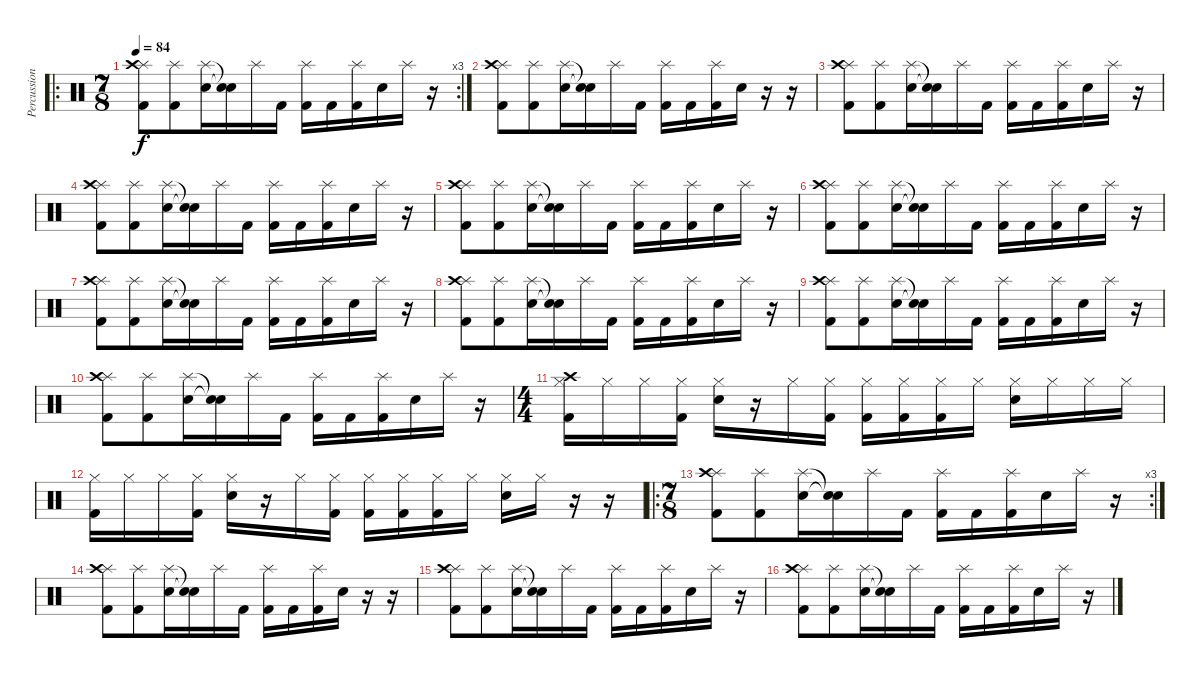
\track ("Percussions" "Percussion") {instrument percussion}
\staff {score}
\articulation defaults
\ro
\rc 3
\ts (7 8)
\tempo 84
\clef neutral
\ks c
("Splash (hit)" "Kick (hit) 2" "Crash high (hit)").8{dy f} ("Kick (hit) 2" "Splash (hit)").8 ("Electric Snare (hit)" "Splash (hit)").16 ("Snare (hit)"{t} "Snare (hit)"{t}).16 "Splash (hit)".16 "Kick (hit) 2".16 ("Kick (hit) 2" "Splash (hit)").16 "Kick (hit) 2".16 ("Kick (hit) 2" "Splash (hit)").16 "Electric Snare (hit)".16 "Splash (hit)".16 r.16 |
("Splash (hit)" "Kick (hit) 2" "Crash high (hit)").8 ("Kick (hit) 2" "Splash (hit)").8 ("Electric Snare (hit)" "Splash (hit)").16 ("Snare (hit)"{t} "Snare (hit)"{t}).16 "Splash (hit)".16 "Kick (hit) 2".16 ("Kick (hit) 2" "Splash (hit)").16 "Kick (hit) 2".16 ("Kick (hit) 2" "Splash (hit)").16 "Electric Snare (hit)".16 r.16 r.16 |
("Splash (hit)" "Kick (hit) 2" "Crash high (hit)").8 ("Kick (hit) 2" "Splash (hit)").8 ("Electric Snare (hit)" "Splash (hit)").16 ("Snare (hit)"{t} "Snare (hit)"{t}).16 "Splash (hit)".16 "Kick (hit) 2".16 ("Kick (hit) 2" "Splash (hit)").16 "Kick (hit) 2".16 ("Kick (hit) 2" "Splash (hit)").16 "Electric Snare (hit)".16 "Splash (hit)".16 r.16 |
("Splash (hit)" "Kick (hit) 2" "Crash high (hit)").8 ("Kick (hit) 2" "Splash (hit)").8 ("Electric Snare (hit)" "Splash (hit)").16 ("Snare (hit)"{t} "Snare (hit)"{t}).16 "Splash (hit)".16 "Kick (hit) 2".16 ("Kick (hit) 2" "Splash (hit)").16 "Kick (hit) 2".16 ("Kick (hit) 2" "Splash (hit)").16 "Electric Snare (hit)".16 "Splash (hit)".16 r.16 |
("Splash (hit)" "Kick (hit) 2" "Crash high (hit)").8 ("Kick (hit) 2" "Splash (hit)").8 ("Electric Snare (hit)" "Splash (hit)").16 ("Snare (hit)"{t} "Snare (hit)"{t}).16 "Splash (hit)".16 "Kick (hit) 2".16 ("Kick (hit) 2" "Splash (hit)").16 "Kick (hit) 2".16 ("Kick (hit) 2" "Splash (hit)").16 "Electric Snare (hit)".16 "Splash (hit)".16 r.16 |
("Splash (hit)" "Kick (hit) 2" "Crash high (hit)").8 ("Kick (hit) 2" "Splash (hit)").8 ("Electric Snare (hit)" "Splash (hit)").16 ("Snare (hit)"{t} "Snare (hit)"{t}).16 "Splash (hit)".16 "Kick (hit) 2".16 ("Kick (hit) 2" "Splash (hit)").16 "Kick (hit) 2".16 ("Kick (hit) 2" "Splash (hit)").16 "Electric Snare (hit)".16 "Splash (hit)".16 r.16 |
("Splash (hit)" "Kick (hit) 2" "Crash high (hit)").8 ("Kick (hit) 2" "Splash (hit)").8 ("Electric Snare (hit)" "Splash (hit)").16 ("Snare (hit)"{t} "Snare (hit)"{t}).16 "Splash (hit)".16 "Kick (hit) 2".16 ("Kick (hit) 2" "Splash (hit)").16 "Kick (hit) 2".16 ("Kick (hit) 2" "Splash (hit)").16 "Electric Snare (hit)".16 "Splash (hit)".16 r.16 |
("Splash (hit)" "Kick (hit) 2" "Crash high (hit)").8 ("Kick (hit) 2" "Splash (hit)").8 ("Electric Snare (hit)" "Splash (hit)").16 ("Snare (hit)"{t} "Snare (hit)"{t}).16 "Splash (hit)".16 "Kick (hit) 2".16 ("Kick (hit) 2" "Splash (hit)").16 "Kick (hit) 2".16 ("Kick (hit) 2" "Splash (hit)").16 "Electric Snare (hit)".16 "Splash (hit)".16 r.16 |
("Splash (hit)" "Kick (hit) 2" "Crash high (hit)").8 ("Kick (hit) 2" "Splash (hit)").8 ("Electric Snare (hit)" "Splash (hit)").16 ("Snare (hit)"{t} "Snare (hit)"{t}).16 "Splash (hit)".16 "Kick (hit) 2".16 ("Kick (hit) 2" "Splash (hit)").16 "Kick (hit) 2".16 ("Kick (hit) 2" "Splash (hit)").16 "Electric Snare (hit)".16 "Splash (hit)".16 r.16 |
("Splash (hit)" "Kick (hit) 2" "Crash high (hit)").8 ("Kick (hit) 2" "Splash (hit)").8 ("Electric Snare (hit)" "Splash (hit)").16 ("Snare (hit)"{t} "Snare (hit)"{t}).16 "Splash (hit)".16 "Kick (hit) 2".16 ("Kick (hit) 2" "Splash (hit)").16 "Kick (hit) 2".16 ("Kick (hit) 2" "Splash (hit)").16 "Electric Snare (hit)".16 "Splash (hit)".16 r.16 |
\ts (4 4)
("Kick (hit) 2" "Hi-Hat (closed)" "Crash high (hit)").16 "Hi-Hat (closed)".16 "Hi-Hat (closed)".16 ("Kick (hit) 2" "Hi-Hat (closed)").16 ("Electric Snare (hit)" "Hi-Hat (closed)").16 r.16 "Hi-Hat (closed)".16 ("Kick (hit) 2" "Hi-Hat (closed)").16 ("Kick (hit) 2" "Hi-Hat (closed)").16 ("Kick (hit) 2" "Hi-Hat (closed)").16 ("Kick (hit) 2" "Hi-Hat (closed)").16 "Hi-Hat (closed)".16 ("Electric Snare (hit)" "Hi-Hat (closed)").16 "Hi-Hat (closed)".16 "Hi-Hat (closed)".16 "Hi-Hat (closed)".16 |
("Kick (hit) 2" "Hi-Hat (closed)").16 "Hi-Hat (closed)".16 "Hi-Hat (closed)".16 ("Kick (hit) 2" "Hi-Hat (closed)").16 ("Electric Snare (hit)" "Hi-Hat (closed)").16 r.16 "Hi-Hat (closed)".16 ("Kick (hit) 2" "Hi-Hat (closed)").16 ("Kick (hit) 2" "Hi-Hat (closed)").16 ("Kick (hit) 2" "Hi-Hat (closed)").16 ("Kick (hit) 2" "Hi-Hat (closed)").16 "Hi-Hat (closed)".16 ("Electric Snare (hit)" "Hi-Hat (closed)").16 "Hi-Hat (closed)".16 r.16 r.16 |
\ro
\rc 3
\ts (7 8)
("Splash (hit)" "Kick (hit) 2" "Crash high (hit)").8 ("Kick (hit) 2" "Splash (hit)").8 ("Electric Snare (hit)" "Splash (hit)").16 ("Snare (hit)"{t} "Snare (hit)"{t}).16 "Splash (hit)".16 "Kick (hit) 2".16 ("Kick (hit) 2" "Splash (hit)").16 "Kick (hit) 2".16 ("Kick (hit) 2" "Splash (hit)").16 "Electric Snare (hit)".16 "Splash (hit)".16 r.16 |
("Splash (hit)" "Kick (hit) 2" "Crash high (hit)").8 ("Kick (hit) 2" "Splash (hit)").8 ("Electric Snare (hit)" "Splash (hit)").16 ("Snare (hit)"{t} "Snare (hit)"{t}).16 "Splash (hit)".16 "Kick (hit) 2".16 ("Kick (hit) 2" "Splash (hit)").16 "Kick (hit) 2".16 ("Kick (hit) 2" "Splash (hit)").16 "Electric Snare (hit)".16 r.16 r.16 |
("Splash (hit)" "Kick (hit) 2" "Crash high (hit)").8 ("Kick (hit) 2" "Splash (hit)").8 ("Electric Snare (hit)" "Splash (hit)").16 ("Snare (hit)"{t} "Snare (hit)"{t}).16 "Splash (hit)".16 "Kick (hit) 2".16 ("Kick (hit) 2" "Splash (hit)").16 "Kick (hit) 2".16 ("Kick (hit) 2" "Splash (hit)").16 "Electric Snare (hit)".16 "Splash (hit)".16 r.16 |
("Splash (hit)" "Kick (hit) 2" "Crash high (hit)").8 ("Kick (hit) 2" "Splash (hit)").8 ("Electric Snare (hit)" "Splash (hit)").16 ("Snare (hit)"{t} "Snare (hit)"{t}).16 "Splash (hit)".16 "Kick (hit) 2".16 ("Kick (hit) 2" "Splash (hit)").16 "Kick (hit) 2".16 ("Kick (hit) 2" "Splash (hit)").16 "Electric Snare (hit)".16 "Splash (hit)".16 r.16
